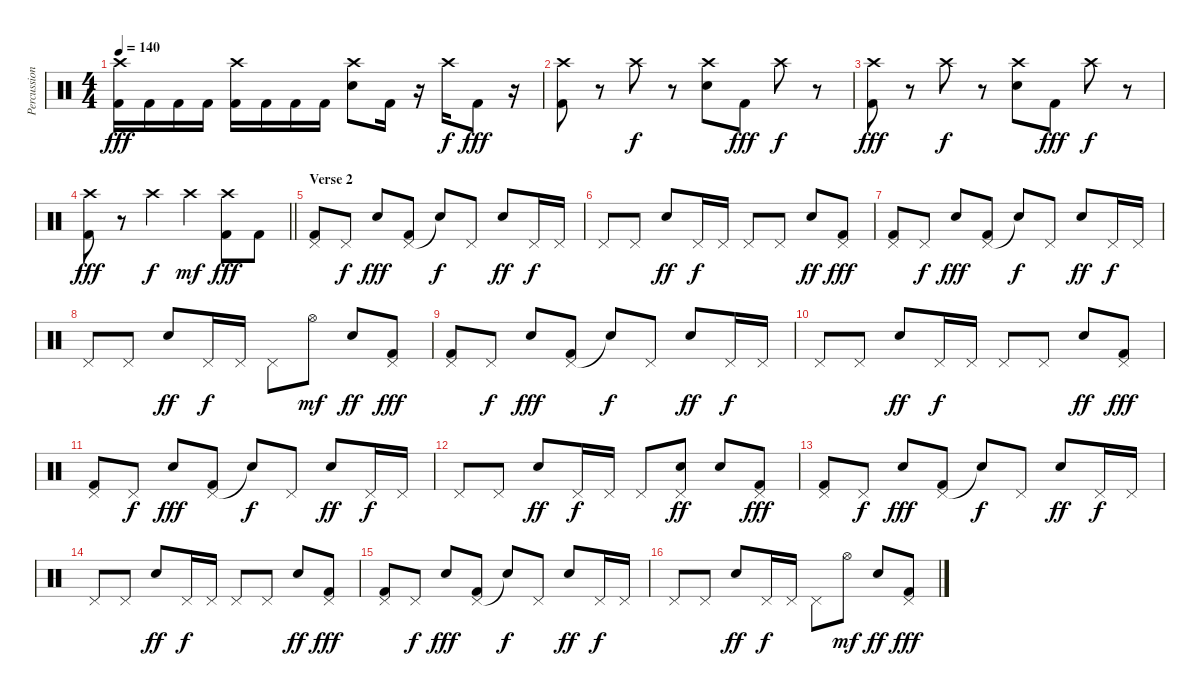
\track ("Percussion" "Percussion") {instrument percussion}
\staff {score}
\articulation defaults
\ts (4 4)
\tempo 140
\clef neutral
\ks c
("Crash high (hit)" "Kick (hit) 2").16{dy fff} "Kick (hit) 2".16 "Kick (hit) 2".16 "Kick (hit) 2".16 ("Crash high (hit)" "Kick (hit) 2").16 "Kick (hit) 2".16 "Kick (hit) 2".16 "Kick (hit) 2".16 ("Crash high (hit)" "Electric Snare (hit)").8 "Kick (hit) 2".16 r.16 "Crash high (hit)".16{dy f} "Kick (hit) 2".8{dy fff} r.16 |
("Crash high (hit)" "Kick (hit) 2").8 r.8 "Crash high (hit)".8{dy f} r.8 ("Crash high (hit)" "Electric Snare (hit)").8 "Kick (hit) 2".8{dy fff} "Crash high (hit)".8{dy f} r.8 |
("Crash high (hit)" "Kick (hit) 2").8{dy fff} r.8 "Crash high (hit)".8{dy f} r.8 ("Crash high (hit)" "Electric Snare (hit)").8 "Kick (hit) 2".8{dy fff} "Crash high (hit)".8{dy f} r.8 |
\barLineRight lightlight
("Crash high (hit)" "Kick (hit) 2").8{dy fff} r.8 "Crash high (hit)".4{dy f} "Crash high (hit)".4{dy mf} ("Crash high (hit)" "Kick (hit) 2").8{dy fff} "Kick (hit) 2".8 |
\section ("" "Verse 2")
("Pedal Hi-Hat (hit)" "Kick (hit) 2").8 "Pedal Hi-Hat (hit)".8{dy f} "Electric Snare (hit)".8{dy fff} ("Pedal Hi-Hat (hit)" "Kick (hit) 2").8 "Snare (hit)"{t}.8{dy f} "Pedal Hi-Hat (hit)".8 "Electric Snare (hit)".8{dy ff} "Pedal Hi-Hat (hit)".16{dy f} "Pedal Hi-Hat (hit)".16 |
"Pedal Hi-Hat (hit)".8 "Pedal Hi-Hat (hit)".8 "Electric Snare (hit)".8{dy ff} "Pedal Hi-Hat (hit)".16{dy f} "Pedal Hi-Hat (hit)".16 "Pedal Hi-Hat (hit)".8 "Pedal Hi-Hat (hit)".8 "Electric Snare (hit)".8{dy ff} ("Pedal Hi-Hat (hit)" "Kick (hit) 2").8{dy fff} |
("Pedal Hi-Hat (hit)" "Kick (hit) 2").8 "Pedal Hi-Hat (hit)".8{dy f} "Electric Snare (hit)".8{dy fff} ("Pedal Hi-Hat (hit)" "Kick (hit) 2").8 "Snare (hit)"{t}.8{dy f} "Pedal Hi-Hat (hit)".8 "Electric Snare (hit)".8{dy ff} "Pedal Hi-Hat (hit)".16{dy f} "Pedal Hi-Hat (hit)".16 |
"Pedal Hi-Hat (hit)".8 "Pedal Hi-Hat (hit)".8 "Electric Snare (hit)".8{dy ff} "Pedal Hi-Hat (hit)".16{dy f} "Pedal Hi-Hat (hit)".16 "Pedal Hi-Hat (hit)".8 "Hi-Hat (open)".8{dy mf} "Electric Snare (hit)".8{dy ff} ("Pedal Hi-Hat (hit)" "Kick (hit) 2").8{dy fff} |
("Pedal Hi-Hat (hit)" "Kick (hit) 2").8 "Pedal Hi-Hat (hit)".8{dy f} "Electric Snare (hit)".8{dy fff} ("Pedal Hi-Hat (hit)" "Kick (hit) 2").8 "Snare (hit)"{t}.8{dy f} "Pedal Hi-Hat (hit)".8 "Electric Snare (hit)".8{dy ff} "Pedal Hi-Hat (hit)".16{dy f} "Pedal Hi-Hat (hit)".16 |
"Pedal Hi-Hat (hit)".8 "Pedal Hi-Hat (hit)".8 "Electric Snare (hit)".8{dy ff} "Pedal Hi-Hat (hit)".16{dy f} "Pedal Hi-Hat (hit)".16 "Pedal Hi-Hat (hit)".8 "Pedal Hi-Hat (hit)".8 "Electric Snare (hit)".8{dy ff} ("Pedal Hi-Hat (hit)" "Kick (hit) 2").8{dy fff} |
("Pedal Hi-Hat (hit)" "Kick (hit) 2").8 "Pedal Hi-Hat (hit)".8{dy f} "Electric Snare (hit)".8{dy fff} ("Pedal Hi-Hat (hit)" "Kick (hit) 2").8 "Snare (hit)"{t}.8{dy f} "Pedal Hi-Hat (hit)".8 "Electric Snare (hit)".8{dy ff} "Pedal Hi-Hat (hit)".16{dy f} "Pedal Hi-Hat (hit)".16 |
"Pedal Hi-Hat (hit)".8 "Pedal Hi-Hat (hit)".8 "Electric Snare (hit)".8{dy ff} "Pedal Hi-Hat (hit)".16{dy f} "Pedal Hi-Hat (hit)".16 "Pedal Hi-Hat (hit)".8 ("Pedal Hi-Hat (hit)" "Electric Snare (hit)").8{dy ff} "Electric Snare (hit)".8 ("Pedal Hi-Hat (hit)" "Kick (hit) 2").8{dy fff} |
("Pedal Hi-Hat (hit)" "Kick (hit) 2").8 "Pedal Hi-Hat (hit)".8{dy f} "Electric Snare (hit)".8{dy fff} ("Pedal Hi-Hat (hit)" "Kick (hit) 2").8 "Snare (hit)"{t}.8{dy f} "Pedal Hi-Hat (hit)".8 "Electric Snare (hit)".8{dy ff} "Pedal Hi-Hat (hit)".16{dy f} "Pedal Hi-Hat (hit)".16 |
"Pedal Hi-Hat (hit)".8 "Pedal Hi-Hat (hit)".8 "Electric Snare (hit)".8{dy ff} "Pedal Hi-Hat (hit)".16{dy f} "Pedal Hi-Hat (hit)".16 "Pedal Hi-Hat (hit)".8 "Pedal Hi-Hat (hit)".8 "Electric Snare (hit)".8{dy ff} ("Pedal Hi-Hat (hit)" "Kick (hit) 2").8{dy fff} |
("Pedal Hi-Hat (hit)" "Kick (hit) 2").8 "Pedal Hi-Hat (hit)".8{dy f} "Electric Snare (hit)".8{dy fff} ("Pedal Hi-Hat (hit)" "Kick (hit) 2").8 "Snare (hit)"{t}.8{dy f} "Pedal Hi-Hat (hit)".8 "Electric Snare (hit)".8{dy ff} "Pedal Hi-Hat (hit)".16{dy f} "Pedal Hi-Hat (hit)".16 |
"Pedal Hi-Hat (hit)".8 "Pedal Hi-Hat (hit)".8 "Electric Snare (hit)".8{dy ff} "Pedal Hi-Hat (hit)".16{dy f} "Pedal Hi-Hat (hit)".16 "Pedal Hi-Hat (hit)".8 "Hi-Hat (open)".8{dy mf} "Electric Snare (hit)".8{dy ff} ("Pedal Hi-Hat (hit)" "Kick (hit) 2").8{dy fff}
